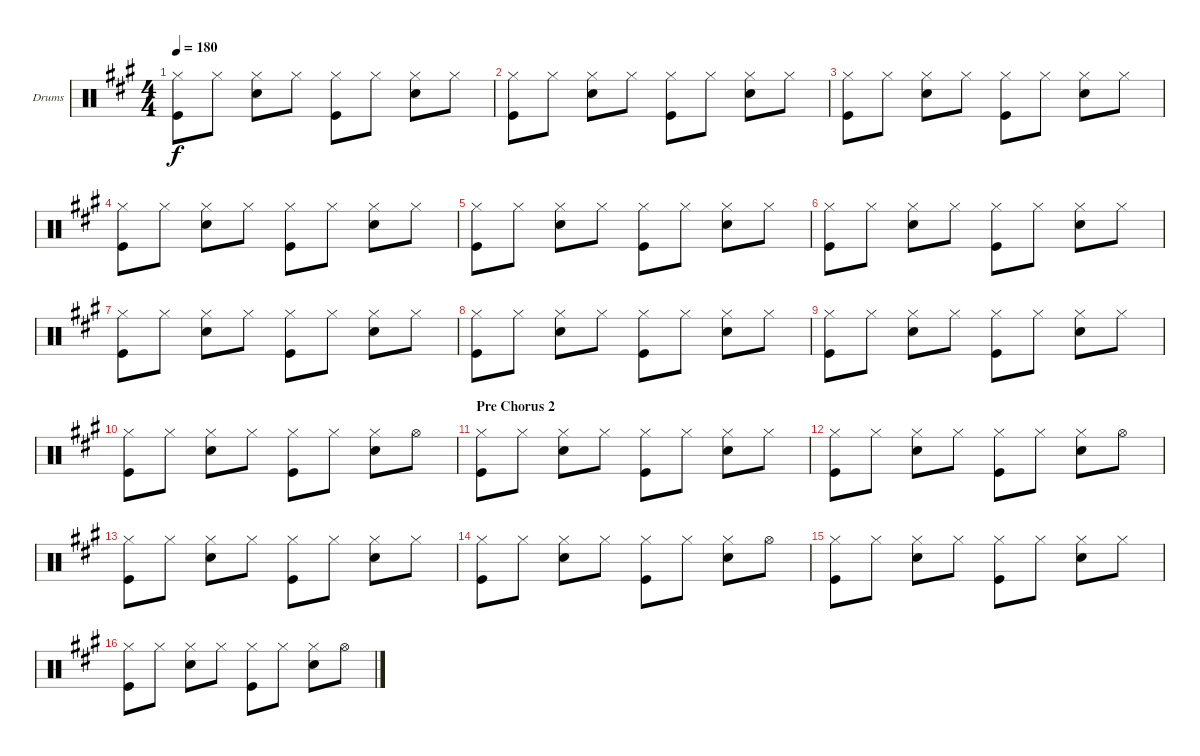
\defaultSystemsLayout 4
\bracketExtendMode groupsimilarinstruments
\firstSystemTrackNameOrientation horizontal
\otherSystemsTrackNameOrientation horizontal
\track ("Drumkit" "Drums") {instrument percussion}
\staff {score}
\articulation defaults
\ts (4 4)
\tempo 180
\clef neutral
\ks f#minor
("Hi-Hat (closed)" "Kick (hit)").8{dy f} "Hi-Hat (closed)".8 ("Hi-Hat (closed)" "Snare (hit) 2").8 "Hi-Hat (closed)".8 ("Hi-Hat (closed)" "Kick (hit)").8 "Hi-Hat (closed)".8 ("Hi-Hat (closed)" "Snare (hit) 2").8 "Hi-Hat (closed)".8 |
("Hi-Hat (closed)" "Kick (hit)").8 "Hi-Hat (closed)".8 ("Hi-Hat (closed)" "Snare (hit) 2").8 "Hi-Hat (closed)".8 ("Hi-Hat (closed)" "Kick (hit)").8 "Hi-Hat (closed)".8 ("Hi-Hat (closed)" "Snare (hit) 2").8 "Hi-Hat (closed)".8 |
("Hi-Hat (closed)" "Kick (hit)").8 "Hi-Hat (closed)".8 ("Hi-Hat (closed)" "Snare (hit) 2").8 "Hi-Hat (closed)".8 ("Hi-Hat (closed)" "Kick (hit)").8 "Hi-Hat (closed)".8 ("Hi-Hat (closed)" "Snare (hit) 2").8 "Hi-Hat (closed)".8 |
("Hi-Hat (closed)" "Kick (hit)").8 "Hi-Hat (closed)".8 ("Hi-Hat (closed)" "Snare (hit) 2").8 "Hi-Hat (closed)".8 ("Hi-Hat (closed)" "Kick (hit)").8 "Hi-Hat (closed)".8 ("Hi-Hat (closed)" "Snare (hit) 2").8 "Hi-Hat (closed)".8 |
("Hi-Hat (closed)" "Kick (hit)").8 "Hi-Hat (closed)".8 ("Hi-Hat (closed)" "Snare (hit) 2").8 "Hi-Hat (closed)".8 ("Hi-Hat (closed)" "Kick (hit)").8 "Hi-Hat (closed)".8 ("Hi-Hat (closed)" "Snare (hit) 2").8 "Hi-Hat (closed)".8 |
("Hi-Hat (closed)" "Kick (hit)").8 "Hi-Hat (closed)".8 ("Hi-Hat (closed)" "Snare (hit) 2").8 "Hi-Hat (closed)".8 ("Hi-Hat (closed)" "Kick (hit)").8 "Hi-Hat (closed)".8 ("Hi-Hat (closed)" "Snare (hit) 2").8 "Hi-Hat (closed)".8 |
("Hi-Hat (closed)" "Kick (hit)").8 "Hi-Hat (closed)".8 ("Hi-Hat (closed)" "Snare (hit) 2").8 "Hi-Hat (closed)".8 ("Hi-Hat (closed)" "Kick (hit)").8 "Hi-Hat (closed)".8 ("Hi-Hat (closed)" "Snare (hit) 2").8 "Hi-Hat (closed)".8 |
("Hi-Hat (closed)" "Kick (hit)").8 "Hi-Hat (closed)".8 ("Hi-Hat (closed)" "Snare (hit) 2").8 "Hi-Hat (closed)".8 ("Hi-Hat (closed)" "Kick (hit)").8 "Hi-Hat (closed)".8 ("Hi-Hat (closed)" "Snare (hit) 2").8 "Hi-Hat (closed)".8 |
("Hi-Hat (closed)" "Kick (hit)").8 "Hi-Hat (closed)".8 ("Hi-Hat (closed)" "Snare (hit) 2").8 "Hi-Hat (closed)".8 ("Hi-Hat (closed)" "Kick (hit)").8 "Hi-Hat (closed)".8 ("Hi-Hat (closed)" "Snare (hit) 2").8 "Hi-Hat (closed)".8 |
("Hi-Hat (closed)" "Kick (hit)").8 "Hi-Hat (closed)".8 ("Hi-Hat (closed)" "Snare (hit) 2").8 "Hi-Hat (closed)".8 ("Hi-Hat (closed)" "Kick (hit)").8 "Hi-Hat (closed)".8 ("Hi-Hat (closed)" "Snare (hit) 2").8 "Hi-Hat (open)".8 |
\section ("" "Pre Chorus 2")
("Hi-Hat (closed)" "Kick (hit)").8 "Hi-Hat (closed)".8 ("Hi-Hat (closed)" "Snare (hit) 2").8 "Hi-Hat (closed)".8 ("Hi-Hat (closed)" "Kick (hit)").8 "Hi-Hat (closed)".8 ("Hi-Hat (closed)" "Snare (hit) 2").8 "Hi-Hat (closed)".8 |
("Hi-Hat (closed)" "Kick (hit)").8 "Hi-Hat (closed)".8 ("Hi-Hat (closed)" "Snare (hit) 2").8 "Hi-Hat (closed)".8 ("Hi-Hat (closed)" "Kick (hit)").8 "Hi-Hat (closed)".8 ("Hi-Hat (closed)" "Snare (hit) 2").8 "Hi-Hat (open)".8 |
("Hi-Hat (closed)" "Kick (hit)").8 "Hi-Hat (closed)".8 ("Hi-Hat (closed)" "Snare (hit) 2").8 "Hi-Hat (closed)".8 ("Hi-Hat (closed)" "Kick (hit)").8 "Hi-Hat (closed)".8 ("Hi-Hat (closed)" "Snare (hit) 2").8 "Hi-Hat (closed)".8 |
("Hi-Hat (closed)" "Kick (hit)").8 "Hi-Hat (closed)".8 ("Hi-Hat (closed)" "Snare (hit) 2").8 "Hi-Hat (closed)".8 ("Hi-Hat (closed)" "Kick (hit)").8 "Hi-Hat (closed)".8 ("Hi-Hat (closed)" "Snare (hit) 2").8 "Hi-Hat (open)".8 |
("Hi-Hat (closed)" "Kick (hit)").8 "Hi-Hat (closed)".8 ("Hi-Hat (closed)" "Snare (hit) 2").8 "Hi-Hat (closed)".8 ("Hi-Hat (closed)" "Kick (hit)").8 "Hi-Hat (closed)".8 ("Hi-Hat (closed)" "Snare (hit) 2").8 "Hi-Hat (closed)".8 |
("Hi-Hat (closed)" "Kick (hit)").8 "Hi-Hat (closed)".8 ("Hi-Hat (closed)" "Snare (hit) 2").8 "Hi-Hat (closed)".8 ("Hi-Hat (closed)" "Kick (hit)").8 "Hi-Hat (closed)".8 ("Hi-Hat (closed)" "Snare (hit) 2").8 "Hi-Hat (open)".8
